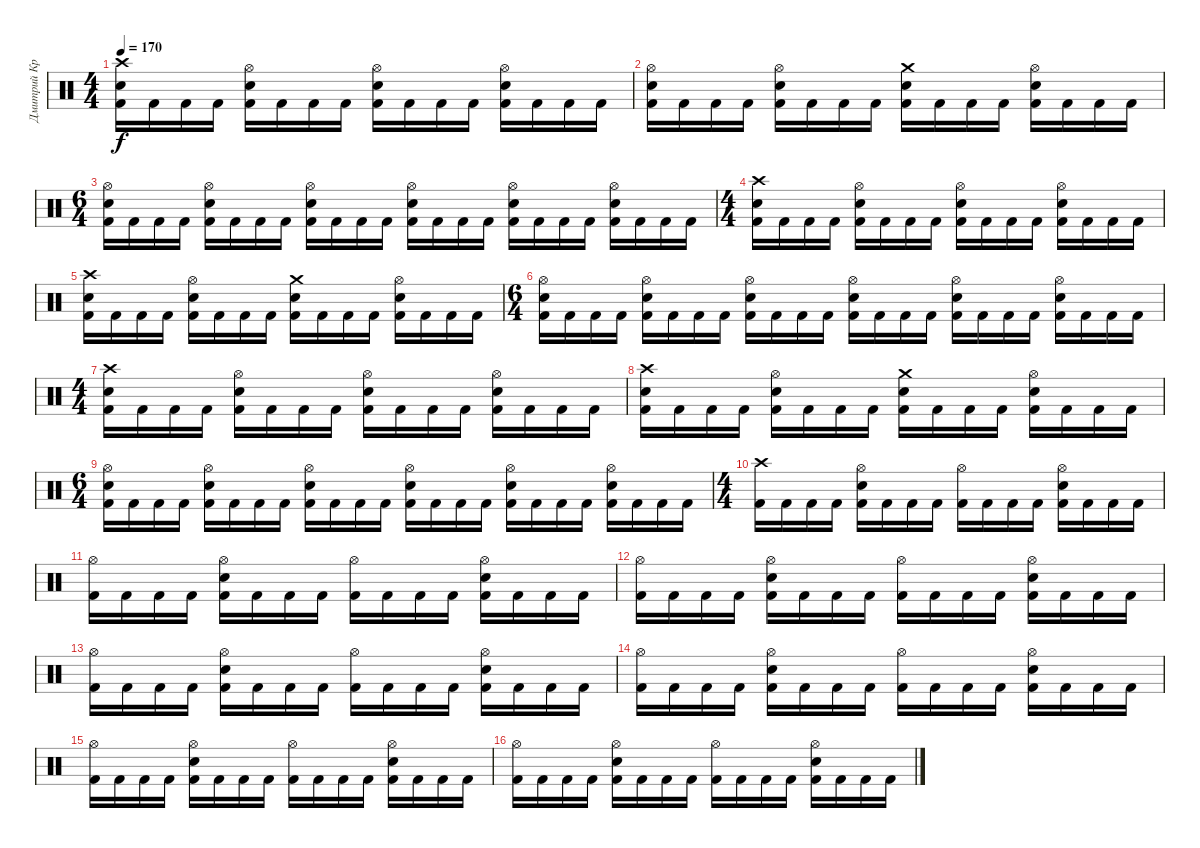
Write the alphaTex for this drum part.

\track ("Дмитрий Кривенков" "Дмитрий Кр") {instrument percussion}
\staff {score}
\articulation defaults
\ts (4 4)
\tempo 170
\clef neutral
\ks c
("Crash high (hit)" "Electric Snare (hit)" "Kick (hit) 2").16{dy f} "Kick (hit) 2".16 "Kick (hit) 2".16 "Kick (hit) 2".16 ("Hi-Hat (open)" "Electric Snare (hit)" "Kick (hit) 2").16 "Kick (hit) 2".16 "Kick (hit) 2".16 "Kick (hit) 2".16 ("Hi-Hat (open)" "Electric Snare (hit)" "Kick (hit) 2").16 "Kick (hit) 2".16 "Kick (hit) 2".16 "Kick (hit) 2".16 ("Hi-Hat (open)" "Electric Snare (hit)" "Kick (hit) 2").16 "Kick (hit) 2".16 "Kick (hit) 2".16 "Kick (hit) 2".16 |
("Hi-Hat (open)" "Electric Snare (hit)" "Kick (hit) 2").16 "Kick (hit) 2".16 "Kick (hit) 2".16 "Kick (hit) 2".16 ("Hi-Hat (open)" "Electric Snare (hit)" "Kick (hit) 2").16 "Kick (hit) 2".16 "Kick (hit) 2".16 "Kick (hit) 2".16 ("Crash medium (hit)" "Electric Snare (hit)" "Kick (hit) 2").16 "Kick (hit) 2".16 "Kick (hit) 2".16 "Kick (hit) 2".16 ("Hi-Hat (open)" "Electric Snare (hit)" "Kick (hit) 2").16 "Kick (hit) 2".16 "Kick (hit) 2".16 "Kick (hit) 2".16 |
\ts (6 4)
("Hi-Hat (open)" "Electric Snare (hit)" "Kick (hit) 2").16 "Kick (hit) 2".16 "Kick (hit) 2".16 "Kick (hit) 2".16 ("Hi-Hat (open)" "Electric Snare (hit)" "Kick (hit) 2").16 "Kick (hit) 2".16 "Kick (hit) 2".16 "Kick (hit) 2".16 ("Hi-Hat (open)" "Electric Snare (hit)" "Kick (hit) 2").16 "Kick (hit) 2".16 "Kick (hit) 2".16 "Kick (hit) 2".16 ("Hi-Hat (open)" "Electric Snare (hit)" "Kick (hit) 2").16 "Kick (hit) 2".16 "Kick (hit) 2".16 "Kick (hit) 2".16 ("Hi-Hat (open)" "Electric Snare (hit)" "Kick (hit) 2").16 "Kick (hit) 2".16 "Kick (hit) 2".16 "Kick (hit) 2".16 ("Hi-Hat (open)" "Electric Snare (hit)" "Kick (hit) 2").16 "Kick (hit) 2".16 "Kick (hit) 2".16 "Kick (hit) 2".16 |
\ts (4 4)
("Crash high (hit)" "Electric Snare (hit)" "Kick (hit) 2").16 "Kick (hit) 2".16 "Kick (hit) 2".16 "Kick (hit) 2".16 ("Hi-Hat (open)" "Electric Snare (hit)" "Kick (hit) 2").16 "Kick (hit) 2".16 "Kick (hit) 2".16 "Kick (hit) 2".16 ("Hi-Hat (open)" "Electric Snare (hit)" "Kick (hit) 2").16 "Kick (hit) 2".16 "Kick (hit) 2".16 "Kick (hit) 2".16 ("Hi-Hat (open)" "Electric Snare (hit)" "Kick (hit) 2").16 "Kick (hit) 2".16 "Kick (hit) 2".16 "Kick (hit) 2".16 |
("Crash high (hit)" "Electric Snare (hit)" "Kick (hit) 2").16 "Kick (hit) 2".16 "Kick (hit) 2".16 "Kick (hit) 2".16 ("Hi-Hat (open)" "Electric Snare (hit)" "Kick (hit) 2").16 "Kick (hit) 2".16 "Kick (hit) 2".16 "Kick (hit) 2".16 ("Crash medium (hit)" "Electric Snare (hit)" "Kick (hit) 2").16 "Kick (hit) 2".16 "Kick (hit) 2".16 "Kick (hit) 2".16 ("Hi-Hat (open)" "Electric Snare (hit)" "Kick (hit) 2").16 "Kick (hit) 2".16 "Kick (hit) 2".16 "Kick (hit) 2".16 |
\ts (6 4)
("Hi-Hat (open)" "Electric Snare (hit)" "Kick (hit) 2").16 "Kick (hit) 2".16 "Kick (hit) 2".16 "Kick (hit) 2".16 ("Hi-Hat (open)" "Electric Snare (hit)" "Kick (hit) 2").16 "Kick (hit) 2".16 "Kick (hit) 2".16 "Kick (hit) 2".16 ("Hi-Hat (open)" "Electric Snare (hit)" "Kick (hit) 2").16 "Kick (hit) 2".16 "Kick (hit) 2".16 "Kick (hit) 2".16 ("Hi-Hat (open)" "Electric Snare (hit)" "Kick (hit) 2").16 "Kick (hit) 2".16 "Kick (hit) 2".16 "Kick (hit) 2".16 ("Hi-Hat (open)" "Electric Snare (hit)" "Kick (hit) 2").16 "Kick (hit) 2".16 "Kick (hit) 2".16 "Kick (hit) 2".16 ("Hi-Hat (open)" "Electric Snare (hit)" "Kick (hit) 2").16 "Kick (hit) 2".16 "Kick (hit) 2".16 "Kick (hit) 2".16 |
\ts (4 4)
("Crash high (hit)" "Electric Snare (hit)" "Kick (hit) 2").16 "Kick (hit) 2".16 "Kick (hit) 2".16 "Kick (hit) 2".16 ("Hi-Hat (open)" "Electric Snare (hit)" "Kick (hit) 2").16 "Kick (hit) 2".16 "Kick (hit) 2".16 "Kick (hit) 2".16 ("Hi-Hat (open)" "Electric Snare (hit)" "Kick (hit) 2").16 "Kick (hit) 2".16 "Kick (hit) 2".16 "Kick (hit) 2".16 ("Hi-Hat (open)" "Electric Snare (hit)" "Kick (hit) 2").16 "Kick (hit) 2".16 "Kick (hit) 2".16 "Kick (hit) 2".16 |
("Crash high (hit)" "Electric Snare (hit)" "Kick (hit) 2").16 "Kick (hit) 2".16 "Kick (hit) 2".16 "Kick (hit) 2".16 ("Hi-Hat (open)" "Electric Snare (hit)" "Kick (hit) 2").16 "Kick (hit) 2".16 "Kick (hit) 2".16 "Kick (hit) 2".16 ("Crash medium (hit)" "Electric Snare (hit)" "Kick (hit) 2").16 "Kick (hit) 2".16 "Kick (hit) 2".16 "Kick (hit) 2".16 ("Hi-Hat (open)" "Electric Snare (hit)" "Kick (hit) 2").16 "Kick (hit) 2".16 "Kick (hit) 2".16 "Kick (hit) 2".16 |
\ts (6 4)
("Hi-Hat (open)" "Electric Snare (hit)" "Kick (hit) 2").16 "Kick (hit) 2".16 "Kick (hit) 2".16 "Kick (hit) 2".16 ("Hi-Hat (open)" "Electric Snare (hit)" "Kick (hit) 2").16 "Kick (hit) 2".16 "Kick (hit) 2".16 "Kick (hit) 2".16 ("Hi-Hat (open)" "Electric Snare (hit)" "Kick (hit) 2").16 "Kick (hit) 2".16 "Kick (hit) 2".16 "Kick (hit) 2".16 ("Hi-Hat (open)" "Electric Snare (hit)" "Kick (hit) 2").16 "Kick (hit) 2".16 "Kick (hit) 2".16 "Kick (hit) 2".16 ("Hi-Hat (open)" "Electric Snare (hit)" "Kick (hit) 2").16 "Kick (hit) 2".16 "Kick (hit) 2".16 "Kick (hit) 2".16 ("Hi-Hat (open)" "Electric Snare (hit)" "Kick (hit) 2").16 "Kick (hit) 2".16 "Kick (hit) 2".16 "Kick (hit) 2".16 |
\ts (4 4)
("Crash high (hit)" "Kick (hit) 2").16 "Kick (hit) 2".16 "Kick (hit) 2".16 "Kick (hit) 2".16 ("Hi-Hat (open)" "Electric Snare (hit)" "Kick (hit) 2").16 "Kick (hit) 2".16 "Kick (hit) 2".16 "Kick (hit) 2".16 ("Hi-Hat (open)" "Kick (hit) 2").16 "Kick (hit) 2".16 "Kick (hit) 2".16 "Kick (hit) 2".16 ("Hi-Hat (open)" "Electric Snare (hit)" "Kick (hit) 2").16 "Kick (hit) 2".16 "Kick (hit) 2".16 "Kick (hit) 2".16 |
("Hi-Hat (open)" "Kick (hit) 2").16 "Kick (hit) 2".16 "Kick (hit) 2".16 "Kick (hit) 2".16 ("Hi-Hat (open)" "Electric Snare (hit)" "Kick (hit) 2").16 "Kick (hit) 2".16 "Kick (hit) 2".16 "Kick (hit) 2".16 ("Hi-Hat (open)" "Kick (hit) 2").16 "Kick (hit) 2".16 "Kick (hit) 2".16 "Kick (hit) 2".16 ("Hi-Hat (open)" "Electric Snare (hit)" "Kick (hit) 2").16 "Kick (hit) 2".16 "Kick (hit) 2".16 "Kick (hit) 2".16 |
("Hi-Hat (open)" "Kick (hit) 2").16 "Kick (hit) 2".16 "Kick (hit) 2".16 "Kick (hit) 2".16 ("Hi-Hat (open)" "Electric Snare (hit)" "Kick (hit) 2").16 "Kick (hit) 2".16 "Kick (hit) 2".16 "Kick (hit) 2".16 ("Hi-Hat (open)" "Kick (hit) 2").16 "Kick (hit) 2".16 "Kick (hit) 2".16 "Kick (hit) 2".16 ("Hi-Hat (open)" "Electric Snare (hit)" "Kick (hit) 2").16 "Kick (hit) 2".16 "Kick (hit) 2".16 "Kick (hit) 2".16 |
("Hi-Hat (open)" "Kick (hit) 2").16 "Kick (hit) 2".16 "Kick (hit) 2".16 "Kick (hit) 2".16 ("Hi-Hat (open)" "Electric Snare (hit)" "Kick (hit) 2").16 "Kick (hit) 2".16 "Kick (hit) 2".16 "Kick (hit) 2".16 ("Hi-Hat (open)" "Kick (hit) 2").16 "Kick (hit) 2".16 "Kick (hit) 2".16 "Kick (hit) 2".16 ("Hi-Hat (open)" "Electric Snare (hit)" "Kick (hit) 2").16 "Kick (hit) 2".16 "Kick (hit) 2".16 "Kick (hit) 2".16 |
("Hi-Hat (open)" "Kick (hit) 2").16 "Kick (hit) 2".16 "Kick (hit) 2".16 "Kick (hit) 2".16 ("Hi-Hat (open)" "Electric Snare (hit)" "Kick (hit) 2").16 "Kick (hit) 2".16 "Kick (hit) 2".16 "Kick (hit) 2".16 ("Hi-Hat (open)" "Kick (hit) 2").16 "Kick (hit) 2".16 "Kick (hit) 2".16 "Kick (hit) 2".16 ("Hi-Hat (open)" "Electric Snare (hit)" "Kick (hit) 2").16 "Kick (hit) 2".16 "Kick (hit) 2".16 "Kick (hit) 2".16 |
("Hi-Hat (open)" "Kick (hit) 2").16 "Kick (hit) 2".16 "Kick (hit) 2".16 "Kick (hit) 2".16 ("Hi-Hat (open)" "Electric Snare (hit)" "Kick (hit) 2").16 "Kick (hit) 2".16 "Kick (hit) 2".16 "Kick (hit) 2".16 ("Hi-Hat (open)" "Kick (hit) 2").16 "Kick (hit) 2".16 "Kick (hit) 2".16 "Kick (hit) 2".16 ("Hi-Hat (open)" "Electric Snare (hit)" "Kick (hit) 2").16 "Kick (hit) 2".16 "Kick (hit) 2".16 "Kick (hit) 2".16 |
("Hi-Hat (open)" "Kick (hit) 2").16 "Kick (hit) 2".16 "Kick (hit) 2".16 "Kick (hit) 2".16 ("Hi-Hat (open)" "Electric Snare (hit)" "Kick (hit) 2").16 "Kick (hit) 2".16 "Kick (hit) 2".16 "Kick (hit) 2".16 ("Hi-Hat (open)" "Kick (hit) 2").16 "Kick (hit) 2".16 "Kick (hit) 2".16 "Kick (hit) 2".16 ("Hi-Hat (open)" "Electric Snare (hit)" "Kick (hit) 2").16 "Kick (hit) 2".16 "Kick (hit) 2".16 "Kick (hit) 2".16
